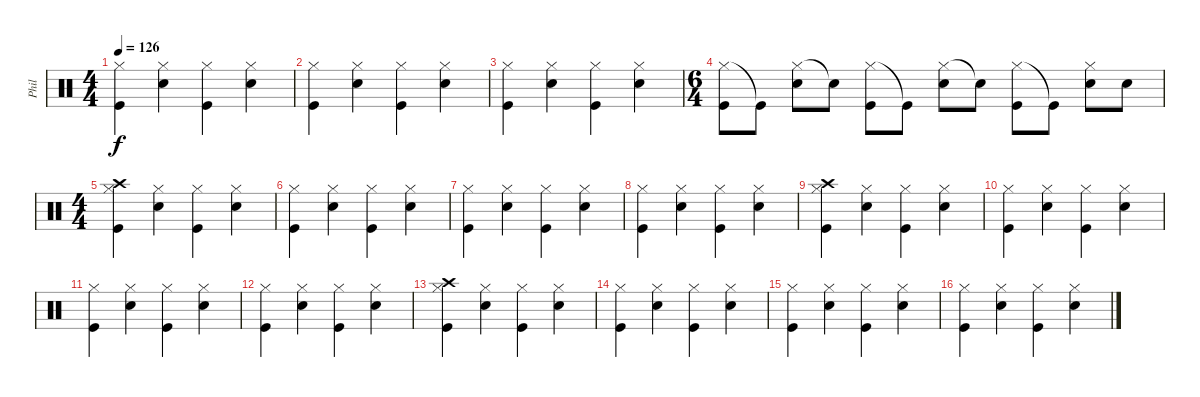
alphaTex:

\track ("Phil" "Phil") {instrument percussion}
\staff {score}
\articulation defaults
\ts (4 4)
\tempo 126
\clef neutral
\ks c
("Hi-Hat (closed)" "Kick (hit)").4{dy f} ("Hi-Hat (closed)" "Snare (hit) 2").4 ("Hi-Hat (closed)" "Kick (hit)").4 ("Hi-Hat (closed)" "Snare (hit) 2").4 |
("Hi-Hat (closed)" "Kick (hit)").4 ("Hi-Hat (closed)" "Snare (hit) 2").4 ("Hi-Hat (closed)" "Kick (hit)").4 ("Hi-Hat (closed)" "Snare (hit) 2").4 |
("Hi-Hat (closed)" "Kick (hit)").4 ("Hi-Hat (closed)" "Snare (hit) 2").4 ("Hi-Hat (closed)" "Kick (hit)").4 ("Hi-Hat (closed)" "Snare (hit) 2").4 |
\ts (6 4)
("Hi-Hat (closed)" "Kick (hit)").8 "Kick (hit)"{t}.8 ("Hi-Hat (closed)" "Snare (hit) 2").8 "Snare (hit) 2"{t}.8 ("Hi-Hat (closed)" "Kick (hit)").8 "Kick (hit)"{t}.8 ("Hi-Hat (closed)" "Snare (hit) 2").8 "Snare (hit) 2"{t}.8 ("Hi-Hat (closed)" "Kick (hit)").8 "Kick (hit)"{t}.8 ("Hi-Hat (closed)" "Snare (hit) 2").8 "Snare (hit) 2".8 |
\ts (4 4)
("Hi-Hat (closed)" "Crash high (hit)" "Kick (hit)").4 ("Hi-Hat (closed)" "Snare (hit) 2").4 ("Hi-Hat (closed)" "Kick (hit)").4 ("Hi-Hat (closed)" "Snare (hit) 2").4 |
("Hi-Hat (closed)" "Kick (hit)").4 ("Hi-Hat (closed)" "Snare (hit) 2").4 ("Hi-Hat (closed)" "Kick (hit)").4 ("Hi-Hat (closed)" "Snare (hit) 2").4 |
("Hi-Hat (closed)" "Kick (hit)").4 ("Hi-Hat (closed)" "Snare (hit) 2").4 ("Hi-Hat (closed)" "Kick (hit)").4 ("Hi-Hat (closed)" "Snare (hit) 2").4 |
("Hi-Hat (closed)" "Kick (hit)").4 ("Hi-Hat (closed)" "Snare (hit) 2").4 ("Hi-Hat (closed)" "Kick (hit)").4 ("Hi-Hat (closed)" "Snare (hit) 2").4 |
("Hi-Hat (closed)" "Crash high (hit)" "Kick (hit)").4 ("Hi-Hat (closed)" "Snare (hit) 2").4 ("Hi-Hat (closed)" "Kick (hit)").4 ("Hi-Hat (closed)" "Snare (hit) 2").4 |
("Hi-Hat (closed)" "Kick (hit)").4 ("Hi-Hat (closed)" "Snare (hit) 2").4 ("Hi-Hat (closed)" "Kick (hit)").4 ("Hi-Hat (closed)" "Snare (hit) 2").4 |
("Hi-Hat (closed)" "Kick (hit)").4 ("Hi-Hat (closed)" "Snare (hit) 2").4 ("Hi-Hat (closed)" "Kick (hit)").4 ("Hi-Hat (closed)" "Snare (hit) 2").4 |
("Hi-Hat (closed)" "Kick (hit)").4 ("Hi-Hat (closed)" "Snare (hit) 2").4 ("Hi-Hat (closed)" "Kick (hit)").4 ("Hi-Hat (closed)" "Snare (hit) 2").4 |
("Hi-Hat (closed)" "Crash high (hit)" "Kick (hit)").4 ("Hi-Hat (closed)" "Snare (hit) 2").4 ("Hi-Hat (closed)" "Kick (hit)").4 ("Hi-Hat (closed)" "Snare (hit) 2").4 |
("Hi-Hat (closed)" "Kick (hit)").4 ("Hi-Hat (closed)" "Snare (hit) 2").4 ("Hi-Hat (closed)" "Kick (hit)").4 ("Hi-Hat (closed)" "Snare (hit) 2").4 |
("Hi-Hat (closed)" "Kick (hit)").4 ("Hi-Hat (closed)" "Snare (hit) 2").4 ("Hi-Hat (closed)" "Kick (hit)").4 ("Hi-Hat (closed)" "Snare (hit) 2").4 |
("Hi-Hat (closed)" "Kick (hit)").4 ("Hi-Hat (closed)" "Snare (hit) 2").4 ("Hi-Hat (closed)" "Kick (hit)").4 ("Hi-Hat (closed)" "Snare (hit) 2").4
